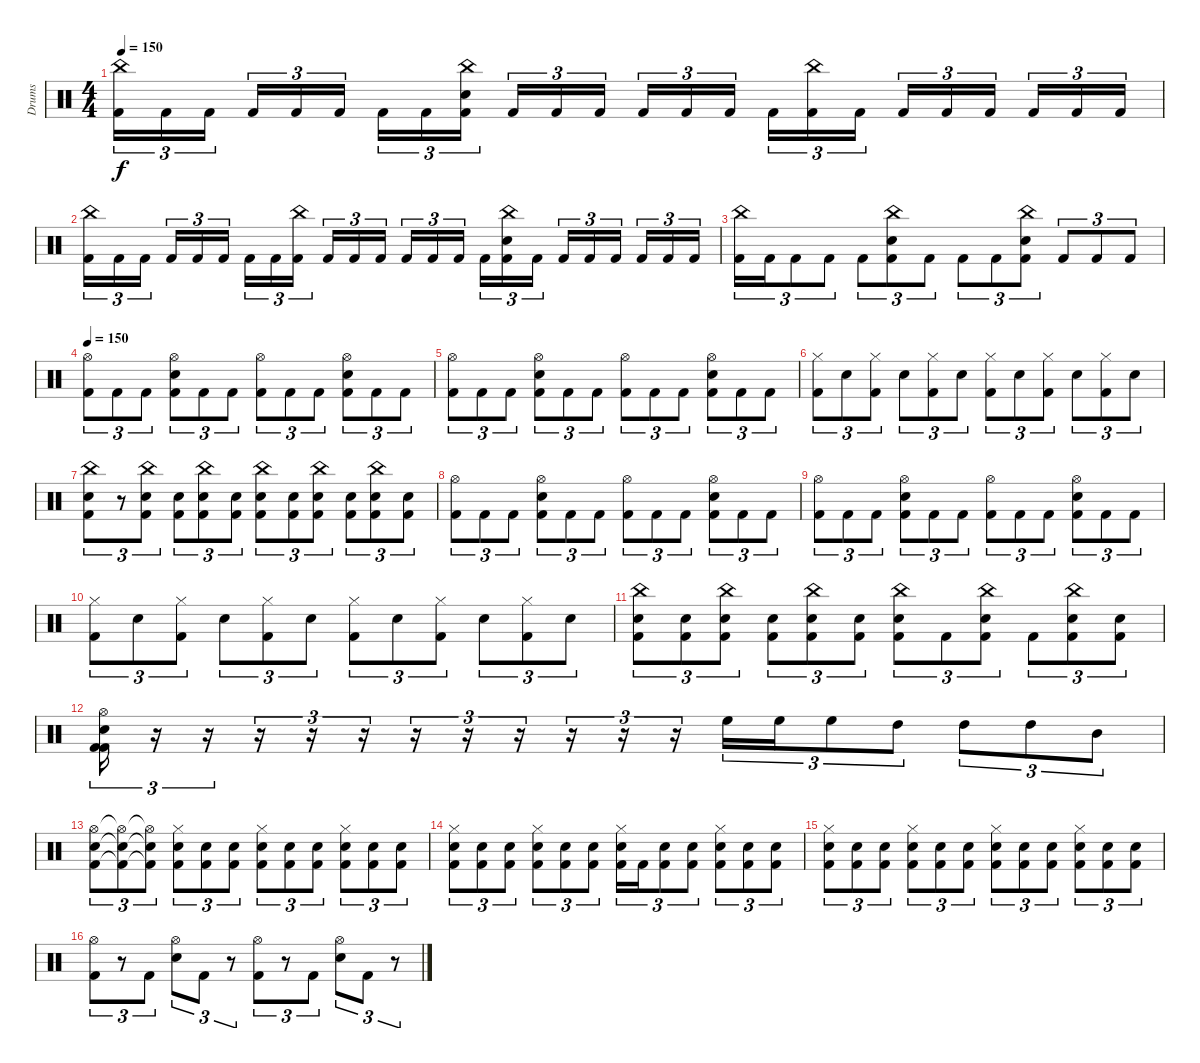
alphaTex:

\track ("Drums" "Drums") {instrument percussion}
\staff {score}
\articulation defaults
\ts (4 4)
\tempo 150
\clef neutral
\ks c
("China (hit)" "Kick (hit) 2").16{tu (3 2) dy f} "Kick (hit) 2".16{tu (3 2)} "Kick (hit) 2".16{tu (3 2) beam splitsecondary} "Kick (hit) 2".16{tu (3 2)} "Kick (hit) 2".16{tu (3 2)} "Kick (hit) 2".16{tu (3 2)} "Kick (hit) 2".16{tu (3 2)} "Kick (hit) 2".16{tu (3 2)} ("China (hit)" "Snare (hit) 2" "Kick (hit) 2").16{tu (3 2) beam splitsecondary} "Kick (hit) 2".16{tu (3 2)} "Kick (hit) 2".16{tu (3 2)} "Kick (hit) 2".16{tu (3 2)} "Kick (hit) 2".16{tu (3 2)} "Kick (hit) 2".16{tu (3 2)} "Kick (hit) 2".16{tu (3 2) beam splitsecondary} "Kick (hit) 2".16{tu (3 2)} ("China (hit)" "Kick (hit) 2").16{tu (3 2)} "Kick (hit) 2".16{tu (3 2)} "Kick (hit) 2".16{tu (3 2)} "Kick (hit) 2".16{tu (3 2)} "Kick (hit) 2".16{tu (3 2) beam splitsecondary} "Kick (hit) 2".16{tu (3 2)} "Kick (hit) 2".16{tu (3 2)} "Kick (hit) 2".16{tu (3 2)} |
("China (hit)" "Kick (hit) 2").16{tu (3 2)} "Kick (hit) 2".16{tu (3 2)} "Kick (hit) 2".16{tu (3 2) beam splitsecondary} "Kick (hit) 2".16{tu (3 2)} "Kick (hit) 2".16{tu (3 2)} "Kick (hit) 2".16{tu (3 2)} "Kick (hit) 2".16{tu (3 2)} "Kick (hit) 2".16{tu (3 2)} ("China (hit)" "Kick (hit) 2").16{tu (3 2) beam splitsecondary} "Kick (hit) 2".16{tu (3 2)} "Kick (hit) 2".16{tu (3 2)} "Kick (hit) 2".16{tu (3 2)} "Kick (hit) 2".16{tu (3 2)} "Kick (hit) 2".16{tu (3 2)} "Kick (hit) 2".16{tu (3 2) beam splitsecondary} "Kick (hit) 2".16{tu (3 2)} ("China (hit)" "Snare (hit) 2" "Kick (hit) 2").16{tu (3 2)} "Kick (hit) 2".16{tu (3 2)} "Kick (hit) 2".16{tu (3 2)} "Kick (hit) 2".16{tu (3 2)} "Kick (hit) 2".16{tu (3 2) beam splitsecondary} "Kick (hit) 2".16{tu (3 2)} "Kick (hit) 2".16{tu (3 2)} "Kick (hit) 2".16{tu (3 2)} |
("China (hit)" "Kick (hit) 2").16{tu (3 2)} "Kick (hit) 2".16{tu (3 2)} "Kick (hit) 2".8{tu (3 2)} "Kick (hit) 2".8{tu (3 2)} "Kick (hit) 2".8{tu (3 2)} ("China (hit)" "Snare (hit) 2" "Kick (hit) 2").8{tu (3 2)} "Kick (hit) 2".8{tu (3 2)} "Kick (hit) 2".8{tu (3 2)} "Kick (hit) 2".8{tu (3 2)} ("China (hit)" "Snare (hit) 2" "Kick (hit) 2").8{tu (3 2)} "Kick (hit) 2".8{tu (3 2)} "Kick (hit) 2".8{tu (3 2)} "Kick (hit) 2".8{tu (3 2)} |
\tempo 150
("Hi-Hat (open)" "Kick (hit) 2").8{tu (3 2)} "Kick (hit) 2".8{tu (3 2)} "Kick (hit) 2".8{tu (3 2)} ("Hi-Hat (open)" "Snare (hit) 2" "Kick (hit) 2").8{tu (3 2)} "Kick (hit) 2".8{tu (3 2)} "Kick (hit) 2".8{tu (3 2)} ("Hi-Hat (open)" "Kick (hit) 2").8{tu (3 2)} "Kick (hit) 2".8{tu (3 2)} "Kick (hit) 2".8{tu (3 2)} ("Hi-Hat (open)" "Snare (hit) 2" "Kick (hit) 2").8{tu (3 2)} "Kick (hit) 2".8{tu (3 2)} "Kick (hit) 2".8{tu (3 2)} |
("Hi-Hat (open)" "Kick (hit) 2").8{tu (3 2)} "Kick (hit) 2".8{tu (3 2)} "Kick (hit) 2".8{tu (3 2)} ("Hi-Hat (open)" "Snare (hit) 2" "Kick (hit) 2").8{tu (3 2)} "Kick (hit) 2".8{tu (3 2)} "Kick (hit) 2".8{tu (3 2)} ("Hi-Hat (open)" "Kick (hit) 2").8{tu (3 2)} "Kick (hit) 2".8{tu (3 2)} "Kick (hit) 2".8{tu (3 2)} ("Hi-Hat (open)" "Snare (hit) 2" "Kick (hit) 2").8{tu (3 2)} "Kick (hit) 2".8{tu (3 2)} "Kick (hit) 2".8{tu (3 2)} |
("Hi-Hat (closed)" "Kick (hit) 2").8{tu (3 2)} "Snare (hit) 2".8{tu (3 2)} ("Hi-Hat (closed)" "Kick (hit) 2").8{tu (3 2)} "Snare (hit) 2".8{tu (3 2)} ("Hi-Hat (closed)" "Kick (hit) 2").8{tu (3 2)} "Snare (hit) 2".8{tu (3 2)} ("Hi-Hat (closed)" "Kick (hit) 2").8{tu (3 2)} "Snare (hit) 2".8{tu (3 2)} ("Hi-Hat (closed)" "Kick (hit) 2").8{tu (3 2)} "Snare (hit) 2".8{tu (3 2)} ("Hi-Hat (closed)" "Kick (hit) 2").8{tu (3 2)} "Snare (hit) 2".8{tu (3 2)} |
("China (hit)" "Snare (hit) 2" "Kick (hit) 2").8{tu (3 2)} r.8{tu (3 2)} ("China (hit)" "Snare (hit) 2" "Kick (hit) 2").8{tu (3 2)} ("Snare (hit) 2" "Kick (hit) 2").8{tu (3 2)} ("China (hit)" "Snare (hit) 2" "Kick (hit) 2").8{tu (3 2)} ("Snare (hit) 2" "Kick (hit) 2").8{tu (3 2)} ("China (hit)" "Snare (hit) 2" "Kick (hit) 2").8{tu (3 2)} ("Snare (hit) 2" "Kick (hit) 2").8{tu (3 2)} ("China (hit)" "Snare (hit) 2" "Kick (hit) 2").8{tu (3 2)} ("Snare (hit) 2" "Kick (hit) 2").8{tu (3 2)} ("China (hit)" "Snare (hit) 2" "Kick (hit) 2").8{tu (3 2)} ("Snare (hit) 2" "Kick (hit) 2").8{tu (3 2)} |
("Hi-Hat (open)" "Kick (hit) 2").8{tu (3 2)} "Kick (hit) 2".8{tu (3 2)} "Kick (hit) 2".8{tu (3 2)} ("Hi-Hat (open)" "Snare (hit) 2" "Kick (hit) 2").8{tu (3 2)} "Kick (hit) 2".8{tu (3 2)} "Kick (hit) 2".8{tu (3 2)} ("Hi-Hat (open)" "Kick (hit) 2").8{tu (3 2)} "Kick (hit) 2".8{tu (3 2)} "Kick (hit) 2".8{tu (3 2)} ("Hi-Hat (open)" "Snare (hit) 2" "Kick (hit) 2").8{tu (3 2)} "Kick (hit) 2".8{tu (3 2)} "Kick (hit) 2".8{tu (3 2)} |
("Hi-Hat (open)" "Kick (hit) 2").8{tu (3 2)} "Kick (hit) 2".8{tu (3 2)} "Kick (hit) 2".8{tu (3 2)} ("Hi-Hat (open)" "Snare (hit) 2" "Kick (hit) 2").8{tu (3 2)} "Kick (hit) 2".8{tu (3 2)} "Kick (hit) 2".8{tu (3 2)} ("Hi-Hat (open)" "Kick (hit) 2").8{tu (3 2)} "Kick (hit) 2".8{tu (3 2)} "Kick (hit) 2".8{tu (3 2)} ("Hi-Hat (open)" "Snare (hit) 2" "Kick (hit) 2").8{tu (3 2)} "Kick (hit) 2".8{tu (3 2)} "Kick (hit) 2".8{tu (3 2)} |
("Hi-Hat (closed)" "Kick (hit) 2").8{tu (3 2)} "Snare (hit) 2".8{tu (3 2)} ("Hi-Hat (closed)" "Kick (hit) 2").8{tu (3 2)} "Snare (hit) 2".8{tu (3 2)} ("Hi-Hat (closed)" "Kick (hit) 2").8{tu (3 2)} "Snare (hit) 2".8{tu (3 2)} ("Hi-Hat (closed)" "Kick (hit) 2").8{tu (3 2)} "Snare (hit) 2".8{tu (3 2)} ("Hi-Hat (closed)" "Kick (hit) 2").8{tu (3 2)} "Snare (hit) 2".8{tu (3 2)} ("Hi-Hat (closed)" "Kick (hit) 2").8{tu (3 2)} "Snare (hit) 2".8{tu (3 2)} |
("China (hit)" "Snare (hit) 2" "Kick (hit) 2").8{tu (3 2)} ("Snare (hit) 2" "Kick (hit) 2").8{tu (3 2)} ("China (hit)" "Snare (hit) 2" "Kick (hit) 2").8{tu (3 2)} ("Snare (hit) 2" "Kick (hit) 2").8{tu (3 2)} ("China (hit)" "Snare (hit) 2" "Kick (hit) 2").8{tu (3 2)} ("Snare (hit) 2" "Kick (hit) 2").8{tu (3 2)} ("China (hit)" "Snare (hit) 2" "Kick (hit) 2").8{tu (3 2)} "Kick (hit) 2".8{tu (3 2)} ("China (hit)" "Snare (hit) 2" "Kick (hit) 2").8{tu (3 2)} "Kick (hit) 2".8{tu (3 2)} ("China (hit)" "Snare (hit) 2" "Kick (hit) 2").8{tu (3 2)} ("Snare (hit) 2" "Kick (hit) 2").8{tu (3 2)} |
("Hi-Hat (open)" "Snare (hit) 2" "Kick (hit) 2" "Kick (hit) 2").16{tu (3 2)} r.16{tu (3 2)} r.16{tu (3 2)} r.16{tu (3 2)} r.16{tu (3 2)} r.16{tu (3 2)} r.16{tu (3 2)} r.16{tu (3 2)} r.16{tu (3 2)} r.16{tu (3 2)} r.16{tu (3 2)} r.16{tu (3 2)} "High Floor Tom (hit)".16{tu (3 2)} "High Floor Tom (hit)".16{tu (3 2)} "High Floor Tom (hit)".8{tu (3 2)} "High Tom (hit)".8{tu (3 2)} "High Tom (hit)".8{tu (3 2)} "High Tom (hit)".8{tu (3 2)} "Mid Tom (hit)".8{tu (3 2)} |
("Hi-Hat (open)" "Snare (hit) 2" "Kick (hit) 2").8{tu (3 2)} ("Hi-Hat (open)"{t} "Snare (hit) 2"{t} "Kick (hit) 2"{t}).8{tu (3 2)} ("Hi-Hat (open)"{t} "Snare (hit) 2"{t} "Kick (hit) 2"{t}).8{tu (3 2)} ("Hi-Hat (closed)" "Snare (hit) 2" "Kick (hit) 2").8{tu (3 2)} ("Snare (hit) 2" "Kick (hit) 2").8{tu (3 2)} ("Snare (hit) 2" "Kick (hit) 2").8{tu (3 2)} ("Hi-Hat (closed)" "Snare (hit) 2" "Kick (hit) 2").8{tu (3 2)} ("Snare (hit) 2" "Kick (hit) 2").8{tu (3 2)} ("Snare (hit) 2" "Kick (hit) 2").8{tu (3 2)} ("Hi-Hat (closed)" "Snare (hit) 2" "Kick (hit) 2").8{tu (3 2)} ("Snare (hit) 2" "Kick (hit) 2").8{tu (3 2)} ("Snare (hit) 2" "Kick (hit) 2").8{tu (3 2)} |
("Hi-Hat (closed)" "Snare (hit) 2" "Kick (hit) 2").8{tu (3 2)} ("Snare (hit) 2" "Kick (hit) 2").8{tu (3 2)} ("Snare (hit) 2" "Kick (hit) 2").8{tu (3 2)} ("Hi-Hat (closed)" "Snare (hit) 2" "Kick (hit) 2").8{tu (3 2)} ("Snare (hit) 2" "Kick (hit) 2").8{tu (3 2)} ("Snare (hit) 2" "Kick (hit) 2").8{tu (3 2)} ("Hi-Hat (closed)" "Snare (hit) 2" "Kick (hit) 2").16{tu (3 2)} "Kick (hit) 2".16{tu (3 2)} ("Snare (hit) 2" "Kick (hit) 2").8{tu (3 2)} ("Snare (hit) 2" "Kick (hit) 2").8{tu (3 2)} ("Hi-Hat (closed)" "Snare (hit) 2" "Kick (hit) 2").8{tu (3 2)} ("Snare (hit) 2" "Kick (hit) 2").8{tu (3 2)} ("Snare (hit) 2" "Kick (hit) 2").8{tu (3 2)} |
("Hi-Hat (closed)" "Snare (hit) 2" "Kick (hit) 2").8{tu (3 2)} ("Snare (hit) 2" "Kick (hit) 2").8{tu (3 2)} ("Snare (hit) 2" "Kick (hit) 2").8{tu (3 2)} ("Hi-Hat (closed)" "Snare (hit) 2" "Kick (hit) 2").8{tu (3 2)} ("Snare (hit) 2" "Kick (hit) 2").8{tu (3 2)} ("Snare (hit) 2" "Kick (hit) 2").8{tu (3 2)} ("Hi-Hat (closed)" "Snare (hit) 2" "Kick (hit) 2").8{tu (3 2)} ("Snare (hit) 2" "Kick (hit) 2").8{tu (3 2)} ("Snare (hit) 2" "Kick (hit) 2").8{tu (3 2)} ("Hi-Hat (closed)" "Snare (hit) 2" "Kick (hit) 2").8{tu (3 2)} ("Snare (hit) 2" "Kick (hit) 2").8{tu (3 2)} ("Snare (hit) 2" "Kick (hit) 2").8{tu (3 2)} |
("Hi-Hat (open)" "Kick (hit) 2").8{tu (3 2)} r.8{tu (3 2)} "Kick (hit) 2".8{tu (3 2)} ("Hi-Hat (open)" "Snare (hit) 2").8{tu (3 2)} "Kick (hit) 2".8{tu (3 2)} r.8{tu (3 2)} ("Hi-Hat (open)" "Kick (hit) 2").8{tu (3 2)} r.8{tu (3 2)} "Kick (hit) 2".8{tu (3 2)} ("Hi-Hat (open)" "Snare (hit) 2").8{tu (3 2)} "Kick (hit) 2".8{tu (3 2)} r.8{tu (3 2)}
